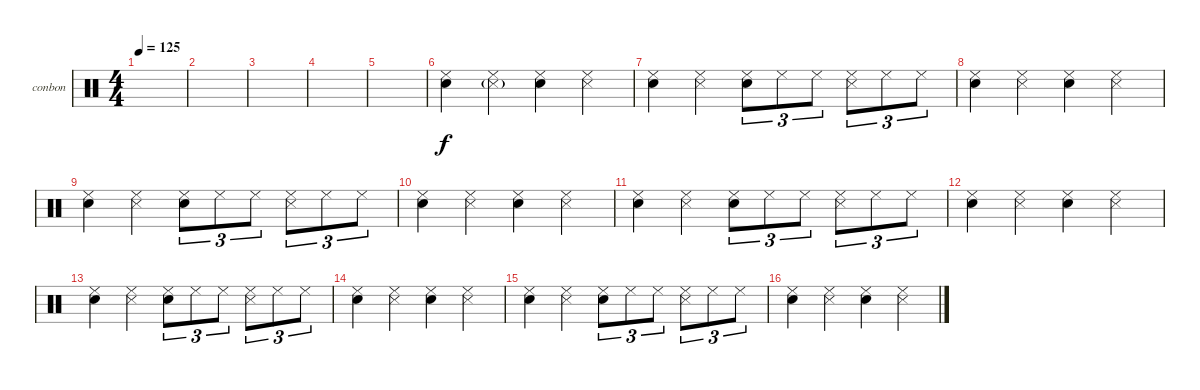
\defaultSystemsLayout 4
\bracketExtendMode groupsimilarinstruments
\firstSystemTrackNameOrientation horizontal
\otherSystemsTrackNameOrientation horizontal
\track ("Bongos N Congas" "conbon") {instrument percussion}
\staff {score}
\articulation defaults
\ts (4 4)
\tempo 125
\clef neutral
\scale
0.474178
\ks c
|
\scale
0.262911 |
|
|
|
\scale
0.262911 ("Cowbell low (tip)" "Snare (hit) 2").4 ("Cowbell low (tip)" "Snare (side stick) 3"{g}).4 ("Cowbell low (tip)" "Snare (hit) 2").4 ("Cowbell low (tip)" "Snare (side stick) 3").4 |
\scale
0.333333 ("Cowbell low (tip)" "Snare (hit) 2").4 ("Cowbell low (tip)" "Snare (side stick) 3").4 ("Cowbell low (tip)" "Snare (hit) 2").8{tu (3 2)} "Cowbell low (tip)".8{tu (3 2)} "Cowbell low (tip)".8{tu (3 2)} ("Cowbell low (tip)" "Snare (side stick) 3").8{tu (3 2)} "Cowbell low (tip)".8{tu (3 2)} "Cowbell low (tip)".8{tu (3 2)} |
\scale
0.333333 ("Cowbell low (tip)" "Snare (hit) 2").4 ("Cowbell low (tip)" "Snare (side stick) 3").4 ("Cowbell low (tip)" "Snare (hit) 2").4 ("Cowbell low (tip)" "Snare (side stick) 3").4 |
\scale
0.333333 ("Cowbell low (tip)" "Snare (hit) 2").4 ("Cowbell low (tip)" "Snare (side stick) 3").4 ("Cowbell low (tip)" "Snare (hit) 2").8{tu (3 2)} "Cowbell low (tip)".8{tu (3 2)} "Cowbell low (tip)".8{tu (3 2)} ("Cowbell low (tip)" "Snare (side stick) 3").8{tu (3 2)} "Cowbell low (tip)".8{tu (3 2)} "Cowbell low (tip)".8{tu (3 2)} |
\scale
0.333333 ("Cowbell low (tip)" "Snare (hit) 2").4 ("Cowbell low (tip)" "Snare (side stick) 3").4 ("Cowbell low (tip)" "Snare (hit) 2").4 ("Cowbell low (tip)" "Snare (side stick) 3").4 |
\scale
0.333333 ("Cowbell low (tip)" "Snare (hit) 2").4 ("Cowbell low (tip)" "Snare (side stick) 3").4 ("Cowbell low (tip)" "Snare (hit) 2").8{tu (3 2)} "Cowbell low (tip)".8{tu (3 2)} "Cowbell low (tip)".8{tu (3 2)} ("Cowbell low (tip)" "Snare (side stick) 3").8{tu (3 2)} "Cowbell low (tip)".8{tu (3 2)} "Cowbell low (tip)".8{tu (3 2)} |
\scale
0.333333 ("Cowbell low (tip)" "Snare (hit) 2").4 ("Cowbell low (tip)" "Snare (side stick) 3").4 ("Cowbell low (tip)" "Snare (hit) 2").4 ("Cowbell low (tip)" "Snare (side stick) 3").4 |
\scale
0.333333 ("Cowbell low (tip)" "Snare (hit) 2").4 ("Cowbell low (tip)" "Snare (side stick) 3").4 ("Cowbell low (tip)" "Snare (hit) 2").8{tu (3 2)} "Cowbell low (tip)".8{tu (3 2)} "Cowbell low (tip)".8{tu (3 2)} ("Cowbell low (tip)" "Snare (side stick) 3").8{tu (3 2)} "Cowbell low (tip)".8{tu (3 2)} "Cowbell low (tip)".8{tu (3 2)} |
\scale
0.333333 ("Cowbell low (tip)" "Snare (hit) 2").4 ("Cowbell low (tip)" "Snare (side stick) 3").4 ("Cowbell low (tip)" "Snare (hit) 2").4 ("Cowbell low (tip)" "Snare (side stick) 3").4 |
\scale
0.333333 ("Cowbell low (tip)" "Snare (hit) 2").4 ("Cowbell low (tip)" "Snare (side stick) 3").4 ("Cowbell low (tip)" "Snare (hit) 2").8{tu (3 2)} "Cowbell low (tip)".8{tu (3 2)} "Cowbell low (tip)".8{tu (3 2)} ("Cowbell low (tip)" "Snare (side stick) 3").8{tu (3 2)} "Cowbell low (tip)".8{tu (3 2)} "Cowbell low (tip)".8{tu (3 2)} |
\scale
0.333333 ("Cowbell low (tip)" "Snare (hit) 2").4 ("Cowbell low (tip)" "Snare (side stick) 3").4 ("Cowbell low (tip)" "Snare (hit) 2").4 ("Cowbell low (tip)" "Snare (side stick) 3").4
